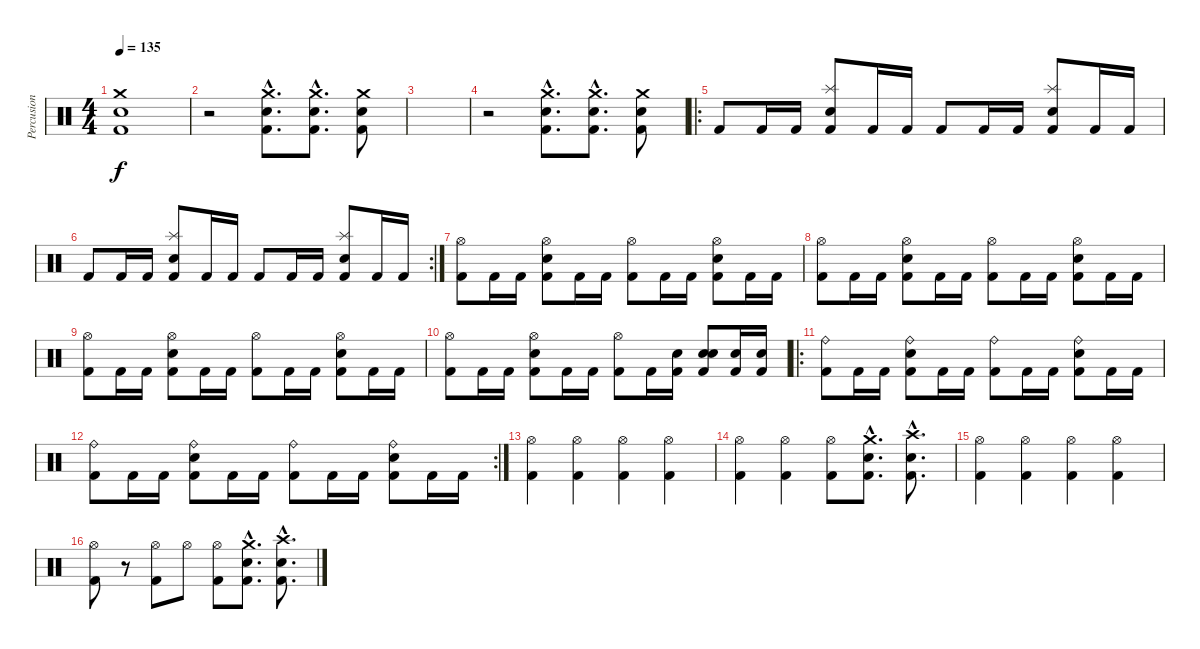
\track ("Percusion" "Percusion") {instrument percussion}
\staff {score}
\articulation defaults
\ts (4 4)
\tempo 135
\clef neutral
\ks c
("Crash medium (hit)" "Electric Snare (hit)" "Kick (hit) 2").1{dy f} |
r.2 ("Crash medium (hit)"{hac} "Electric Snare (hit)"{hac} "Kick (hit) 2"{hac}).8{d} ("Crash medium (hit)"{hac} "Electric Snare (hit)"{hac} "Kick (hit) 2"{hac}).8{d} ("Crash medium (hit)" "Electric Snare (hit)" "Kick (hit) 2").8 |
|
r.2 ("Crash medium (hit)"{hac} "Electric Snare (hit)"{hac} "Kick (hit) 2"{hac}).8{d} ("Crash medium (hit)"{hac} "Electric Snare (hit)"{hac} "Kick (hit) 2"{hac}).8{d} ("Crash medium (hit)" "Electric Snare (hit)" "Kick (hit) 2").8 |
\ro "Kick (hit) 2".8 "Kick (hit) 2".16 "Kick (hit) 2".16
("Splash (hit)" "Snare (hit) 2" "Kick (hit) 2").8 "Kick (hit) 2".16 "Kick (hit) 2".16 "Kick (hit) 2".8 "Kick (hit) 2".16 "Kick (hit) 2".16 ("Splash (hit)" "Snare (hit) 2" "Kick (hit) 2").8 "Kick (hit) 2".16 "Kick (hit) 2".16 |
\rc 2 "Kick (hit) 2".8 "Kick (hit) 2".16 "Kick (hit) 2".16
("Splash (hit)" "Snare (hit) 2" "Kick (hit) 2").8 "Kick (hit) 2".16 "Kick (hit) 2".16 "Kick (hit) 2".8 "Kick (hit) 2".16 "Kick (hit) 2".16 ("Splash (hit)" "Snare (hit) 2" "Kick (hit) 2").8 "Kick (hit) 2".16 "Kick (hit) 2".16 |
("Hi-Hat (open)" "Kick (hit) 2").8 "Kick (hit) 2".16 "Kick (hit) 2".16 ("Hi-Hat (open)" "Snare (hit) 2" "Kick (hit) 2").8 "Kick (hit) 2".16 "Kick (hit) 2".16 ("Hi-Hat (open)" "Kick (hit) 2").8 "Kick (hit) 2".16 "Kick (hit) 2".16 ("Hi-Hat (open)" "Snare (hit) 2" "Kick (hit) 2").8 "Kick (hit) 2".16 "Kick (hit) 2".16 |
("Hi-Hat (open)" "Kick (hit) 2").8 "Kick (hit) 2".16 "Kick (hit) 2".16 ("Hi-Hat (open)" "Snare (hit) 2" "Kick (hit) 2").8 "Kick (hit) 2".16 "Kick (hit) 2".16 ("Hi-Hat (open)" "Kick (hit) 2").8 "Kick (hit) 2".16 "Kick (hit) 2".16 ("Hi-Hat (open)" "Snare (hit) 2" "Kick (hit) 2").8 "Kick (hit) 2".16 "Kick (hit) 2".16 |
("Hi-Hat (open)" "Kick (hit) 2").8 "Kick (hit) 2".16 "Kick (hit) 2".16 ("Hi-Hat (open)" "Snare (hit) 2" "Kick (hit) 2").8 "Kick (hit) 2".16 "Kick (hit) 2".16 ("Hi-Hat (open)" "Kick (hit) 2").8 "Kick (hit) 2".16 "Kick (hit) 2".16 ("Hi-Hat (open)" "Snare (hit) 2" "Kick (hit) 2").8 "Kick (hit) 2".16 "Kick (hit) 2".16 |
("Hi-Hat (open)" "Kick (hit) 2").8 "Kick (hit) 2".16 "Kick (hit) 2".16 ("Hi-Hat (open)" "Snare (hit) 2" "Kick (hit) 2").8 "Kick (hit) 2".16 "Kick (hit) 2".16 ("Hi-Hat (open)" "Kick (hit) 2").8 "Kick (hit) 2".16 ("Electric Snare (hit)" "Kick (hit) 2").16 ("Snare (hit) 2" "Electric Snare (hit)" "Kick (hit) 2").8 ("Electric Snare (hit)" "Kick (hit) 2").16 ("Electric Snare (hit)" "Kick (hit) 2").16 |
\ro
("Ride (bell)" "Kick (hit) 2").8 "Kick (hit) 2".16 "Kick (hit) 2".16 ("Ride (bell)" "Snare (hit) 2" "Kick (hit) 2").8 "Kick (hit) 2".16 "Kick (hit) 2".16 ("Ride (bell)" "Kick (hit) 2").8 "Kick (hit) 2".16 "Kick (hit) 2".16 ("Ride (bell)" "Snare (hit) 2" "Kick (hit) 2").8 "Kick (hit) 2".16 "Kick (hit) 2".16 |
\rc 2
("Ride (bell)" "Kick (hit) 2").8 "Kick (hit) 2".16 "Kick (hit) 2".16 ("Ride (bell)" "Snare (hit) 2" "Kick (hit) 2").8 "Kick (hit) 2".16 "Kick (hit) 2".16 ("Ride (bell)" "Kick (hit) 2").8 "Kick (hit) 2".16 "Kick (hit) 2".16 ("Ride (bell)" "Snare (hit) 2" "Kick (hit) 2").8 "Kick (hit) 2".16 "Kick (hit) 2".16 |
("Hi-Hat (open)" "Kick (hit) 2").4 ("Hi-Hat (open)" "Kick (hit) 2").4 ("Hi-Hat (open)" "Kick (hit) 2").4 ("Hi-Hat (open)" "Kick (hit) 2").4 |
("Hi-Hat (open)" "Kick (hit) 2").4 ("Hi-Hat (open)" "Kick (hit) 2").4 ("Hi-Hat (open)" "Kick (hit) 2").8 ("Crash medium (hit)"{hac} "Snare (hit) 2"{hac} "Kick (hit) 2"{hac}).8{d} ("Crash high (hit)"{hac} "Snare (hit) 2"{hac} "Kick (hit) 2"{hac}).8{d} |
("Hi-Hat (open)" "Kick (hit) 2").4 ("Hi-Hat (open)" "Kick (hit) 2").4 ("Hi-Hat (open)" "Kick (hit) 2").4 ("Hi-Hat (open)" "Kick (hit) 2").4 |
("Hi-Hat (open)" "Kick (hit) 2").8 r.8 ("Hi-Hat (open)" "Kick (hit) 2").8 "Hi-Hat (open)".8 ("Hi-Hat (open)" "Kick (hit) 2").8 ("Crash medium (hit)"{hac} "Electric Snare (hit)"{hac} "Kick (hit) 2"{hac}).8{d} ("Crash high (hit)"{hac} "Electric Snare (hit)"{hac} "Kick (hit) 2"{hac}).8{d}
